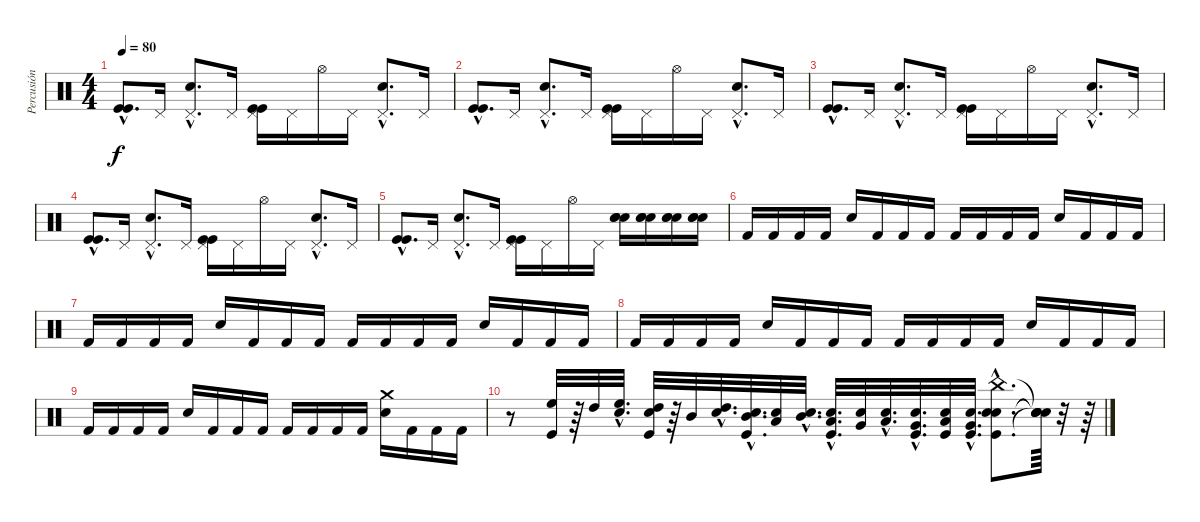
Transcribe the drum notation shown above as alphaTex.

\track ("Percusión" "Percusión") {instrument percussion}
\staff {score}
\articulation defaults
\ts (4 4)
\tempo 80
\clef neutral
\ks c
("Kick (hit)"{hac} "Kick (hit)"{hac}).8{d dy f} "Pedal Hi-Hat (hit)".16 ("Pedal Hi-Hat (hit)"{hac} "Electric Snare (hit)"{hac}).8{d} "Pedal Hi-Hat (hit)".16 ("Pedal Hi-Hat (hit)" "Kick (hit)" "Kick (hit)").16 "Pedal Hi-Hat (hit)".16 "Hi-Hat (open)".16 "Pedal Hi-Hat (hit)".16 ("Pedal Hi-Hat (hit)"{hac} "Electric Snare (hit)"{hac}).8{d} "Pedal Hi-Hat (hit)".16 |
("Kick (hit)"{hac} "Kick (hit)"{hac}).8{d} "Pedal Hi-Hat (hit)".16 ("Pedal Hi-Hat (hit)"{hac} "Electric Snare (hit)"{hac}).8{d} "Pedal Hi-Hat (hit)".16 ("Pedal Hi-Hat (hit)" "Kick (hit)" "Kick (hit)").16 "Pedal Hi-Hat (hit)".16 "Hi-Hat (open)".16 "Pedal Hi-Hat (hit)".16 ("Pedal Hi-Hat (hit)"{hac} "Electric Snare (hit)"{hac}).8{d} "Pedal Hi-Hat (hit)".16 |
("Kick (hit)"{hac} "Kick (hit)"{hac}).8{d} "Pedal Hi-Hat (hit)".16 ("Pedal Hi-Hat (hit)"{hac} "Electric Snare (hit)"{hac}).8{d} "Pedal Hi-Hat (hit)".16 ("Pedal Hi-Hat (hit)" "Kick (hit)" "Kick (hit)").16 "Pedal Hi-Hat (hit)".16 "Hi-Hat (open)".16 "Pedal Hi-Hat (hit)".16 ("Pedal Hi-Hat (hit)"{hac} "Electric Snare (hit)"{hac}).8{d} "Pedal Hi-Hat (hit)".16 |
("Kick (hit)"{hac} "Kick (hit)"{hac}).8{d} "Pedal Hi-Hat (hit)".16 ("Pedal Hi-Hat (hit)"{hac} "Electric Snare (hit)"{hac}).8{d} "Pedal Hi-Hat (hit)".16 ("Pedal Hi-Hat (hit)" "Kick (hit)" "Kick (hit)").16 "Pedal Hi-Hat (hit)".16 "Hi-Hat (open)".16 "Pedal Hi-Hat (hit)".16 ("Pedal Hi-Hat (hit)"{hac} "Electric Snare (hit)"{hac}).8{d} "Pedal Hi-Hat (hit)".16 |
("Kick (hit)"{hac} "Kick (hit)"{hac}).8{d} "Pedal Hi-Hat (hit)".16 ("Pedal Hi-Hat (hit)"{hac} "Electric Snare (hit)"{hac}).8{d} "Pedal Hi-Hat (hit)".16 ("Pedal Hi-Hat (hit)" "Kick (hit)" "Kick (hit)").16 "Pedal Hi-Hat (hit)".16 "Hi-Hat (open)".16 "Pedal Hi-Hat (hit)".16 ("Electric Snare (hit)" "Electric Snare (hit)" "Electric Snare (hit)").16 ("Electric Snare (hit)" "Electric Snare (hit)" "Electric Snare (hit)").16 ("Electric Snare (hit)" "Electric Snare (hit)" "Electric Snare (hit)").16 ("Electric Snare (hit)" "Electric Snare (hit)" "Electric Snare (hit)").16 |
"Kick (hit) 2".16{volume 16} "Kick (hit) 2".16 "Kick (hit) 2".16 "Kick (hit) 2".16 "Electric Snare (hit)".16 "Kick (hit) 2".16 "Kick (hit) 2".16 "Kick (hit) 2".16 "Kick (hit) 2".16 "Kick (hit) 2".16 "Kick (hit) 2".16 "Kick (hit) 2".16 "Electric Snare (hit)".16 "Kick (hit) 2".16 "Kick (hit) 2".16 "Kick (hit) 2".16 |
"Kick (hit) 2".16 "Kick (hit) 2".16 "Kick (hit) 2".16 "Kick (hit) 2".16 "Electric Snare (hit)".16 "Kick (hit) 2".16 "Kick (hit) 2".16 "Kick (hit) 2".16 "Kick (hit) 2".16 "Kick (hit) 2".16 "Kick (hit) 2".16 "Kick (hit) 2".16 "Electric Snare (hit)".16 "Kick (hit) 2".16 "Kick (hit) 2".16 "Kick (hit) 2".16 |
"Kick (hit) 2".16 "Kick (hit) 2".16 "Kick (hit) 2".16 "Kick (hit) 2".16 "Electric Snare (hit)".16 "Kick (hit) 2".16 "Kick (hit) 2".16 "Kick (hit) 2".16 "Kick (hit) 2".16 "Kick (hit) 2".16 "Kick (hit) 2".16 "Kick (hit) 2".16 "Electric Snare (hit)".16 "Kick (hit) 2".16 "Kick (hit) 2".16 "Kick (hit) 2".16 |
"Kick (hit) 2".16 "Kick (hit) 2".16 "Kick (hit) 2".16 "Kick (hit) 2".16 "Electric Snare (hit)".16 "Kick (hit) 2".16 "Kick (hit) 2".16 "Kick (hit) 2".16 "Kick (hit) 2".16 "Kick (hit) 2".16 "Kick (hit) 2".16 "Kick (hit) 2".16 ("Crash medium (hit)" "Electric Snare (hit)").16 "Kick (hit) 2".16 "Kick (hit) 2".16 "Kick (hit) 2".16 |
r.8 ("Kick (hit)" "High Floor Tom (hit)").32 r.64 "High Tom (hit)".32 ("Snare (hit)"{hac} "High Floor Tom (hit)"{hac}).32{d} ("Snare (hit)" "Kick (hit)" "High Tom (hit)").32 r.64 "Mid Tom (hit)".32 ("Snare (hit)"{hac} "High Tom (hit)"{hac}).32{d} ("Snare (hit)"{hac} "Kick (hit)"{hac} "Mid Tom (hit)"{hac}).32{d} ("Snare (hit)" "Low Tom (hit)").32 ("Snare (hit)"{hac} "Mid Tom (hit)"{hac}).32{d} ("Snare (hit)"{hac} "Kick (hit)"{hac} "Low Tom (hit)"{hac}).32{d} ("Snare (hit)" "Very Low Tom (hit)").32 ("Snare (hit)"{hac} "Low Tom (hit)"{hac}).32{d} ("Snare (hit)"{hac} "Kick (hit)"{hac} "Very Low Tom (hit)"{hac}).32{d} ("Snare (hit)" "Kick (hit)" "Low Floor Tom (hit)").32 ("Snare (hit)"{hac} "Kick (hit)"{hac} "Very Low Tom (hit)"{hac}).32{d} ("Snare (hit)"{hac} "Kick (hit)"{hac} "Snare (hit) 2"{hac} "China (hit)"{hac}).8{d} ("Snare (hit)"{t} "Snare (hit)"{t} "Snare (hit)"{t} "Snare (hit)"{t}).64 r.32 r.64
